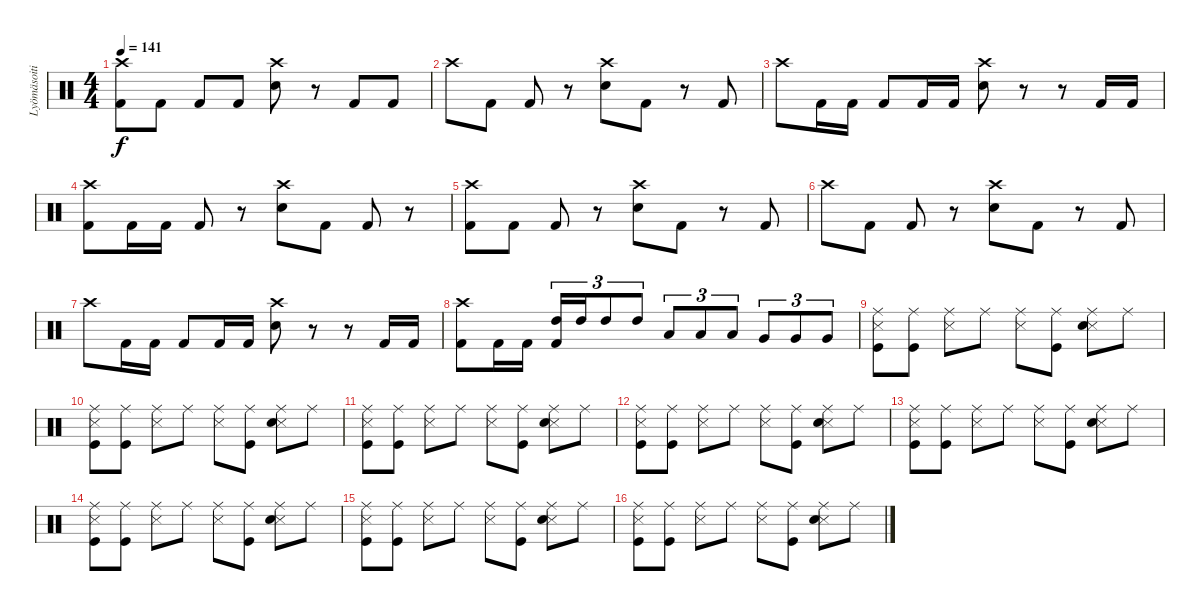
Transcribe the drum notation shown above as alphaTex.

\track ("Lyömäsoitin" "Lyömäsoiti") {instrument percussion}
\staff {score}
\articulation defaults
\ts (4 4)
\tempo 141
\clef neutral
\ks c
("Crash high (hit)" "Kick (hit) 2").8{dy f} "Kick (hit) 2".8 "Kick (hit) 2".8 "Kick (hit) 2".8 ("Crash high (hit)" "Electric Snare (hit)").8 r.8 "Kick (hit) 2".8 "Kick (hit) 2".8 |
"Crash high (hit)".8 "Kick (hit) 2".8 "Kick (hit) 2".8 r.8 ("Crash high (hit)" "Electric Snare (hit)").8 "Kick (hit) 2".8 r.8 "Kick (hit) 2".8 |
"Crash high (hit)".8 "Kick (hit) 2".16 "Kick (hit) 2".16 "Kick (hit) 2".8 "Kick (hit) 2".16 "Kick (hit) 2".16 ("Crash high (hit)" "Electric Snare (hit)").8 r.8 r.8 "Kick (hit) 2".16 "Kick (hit) 2".16 |
("Crash high (hit)" "Kick (hit) 2").8 "Kick (hit) 2".16 "Kick (hit) 2".16 "Kick (hit) 2".8 r.8 ("Crash high (hit)" "Electric Snare (hit)").8 "Kick (hit) 2".8 "Kick (hit) 2".8 r.8 |
("Crash high (hit)" "Kick (hit) 2").8 "Kick (hit) 2".8 "Kick (hit) 2".8 r.8 ("Crash high (hit)" "Electric Snare (hit)").8 "Kick (hit) 2".8 r.8 "Kick (hit) 2".8 |
"Crash high (hit)".8 "Kick (hit) 2".8 "Kick (hit) 2".8 r.8 ("Crash high (hit)" "Electric Snare (hit)").8 "Kick (hit) 2".8 r.8 "Kick (hit) 2".8 |
"Crash high (hit)".8 "Kick (hit) 2".16 "Kick (hit) 2".16 "Kick (hit) 2".8 "Kick (hit) 2".16 "Kick (hit) 2".16 ("Crash high (hit)" "Electric Snare (hit)").8 r.8 r.8 "Kick (hit) 2".16 "Kick (hit) 2".16 |
("Crash high (hit)" "Kick (hit) 2").8 "Kick (hit) 2".16 "Kick (hit) 2".16 ("High Tom (hit)" "Kick (hit) 2").16{tu (3 2)} "High Tom (hit)".16{tu (3 2)} "High Tom (hit)".8{tu (3 2)} "High Tom (hit)".8{tu (3 2)} "Low Tom (hit)".8{tu (3 2)} "Low Tom (hit)".8{tu (3 2)} "Low Tom (hit)".8{tu (3 2)} "Very Low Tom (hit)".8{tu (3 2)} "Very Low Tom (hit)".8{tu (3 2)} "Very Low Tom (hit)".8{tu (3 2)} |
("Snare (side stick) 3" "Ride (middle)" "Kick (hit)").8 ("Ride (middle)" "Kick (hit)").8 ("Snare (side stick) 3" "Ride (middle)").8 "Ride (middle)".8 ("Snare (side stick) 3" "Ride (middle)").8 ("Ride (middle)" "Kick (hit)").8 ("Snare (side stick) 3" "Ride (middle)" "Snare (hit) 2").8 "Ride (middle)".8 |
("Snare (side stick) 3" "Ride (middle)" "Kick (hit)").8 ("Ride (middle)" "Kick (hit)").8 ("Snare (side stick) 3" "Ride (middle)").8 "Ride (middle)".8 ("Snare (side stick) 3" "Ride (middle)").8 ("Ride (middle)" "Kick (hit)").8 ("Snare (side stick) 3" "Ride (middle)" "Snare (hit) 2").8 "Ride (middle)".8 |
("Snare (side stick) 3" "Ride (middle)" "Kick (hit)").8 ("Ride (middle)" "Kick (hit)").8 ("Snare (side stick) 3" "Ride (middle)").8 "Ride (middle)".8 ("Snare (side stick) 3" "Ride (middle)").8 ("Ride (middle)" "Kick (hit)").8 ("Snare (side stick) 3" "Ride (middle)" "Snare (hit) 2").8 "Ride (middle)".8 |
("Snare (side stick) 3" "Ride (middle)" "Kick (hit)").8 ("Ride (middle)" "Kick (hit)").8 ("Snare (side stick) 3" "Ride (middle)").8 "Ride (middle)".8 ("Snare (side stick) 3" "Ride (middle)").8 ("Ride (middle)" "Kick (hit)").8 ("Snare (side stick) 3" "Ride (middle)" "Snare (hit) 2").8 "Ride (middle)".8 |
("Snare (side stick) 3" "Ride (middle)" "Kick (hit)").8 ("Ride (middle)" "Kick (hit)").8 ("Snare (side stick) 3" "Ride (middle)").8 "Ride (middle)".8 ("Snare (side stick) 3" "Ride (middle)").8 ("Ride (middle)" "Kick (hit)").8 ("Snare (side stick) 3" "Ride (middle)" "Snare (hit) 2").8 "Ride (middle)".8 |
("Snare (side stick) 3" "Ride (middle)" "Kick (hit)").8 ("Ride (middle)" "Kick (hit)").8 ("Snare (side stick) 3" "Ride (middle)").8 "Ride (middle)".8 ("Snare (side stick) 3" "Ride (middle)").8 ("Ride (middle)" "Kick (hit)").8 ("Snare (side stick) 3" "Ride (middle)" "Snare (hit) 2").8 "Ride (middle)".8 |
("Snare (side stick) 3" "Ride (middle)" "Kick (hit)").8 ("Ride (middle)" "Kick (hit)").8 ("Snare (side stick) 3" "Ride (middle)").8 "Ride (middle)".8 ("Snare (side stick) 3" "Ride (middle)").8 ("Ride (middle)" "Kick (hit)").8 ("Snare (side stick) 3" "Ride (middle)" "Snare (hit) 2").8 "Ride (middle)".8 |
("Snare (side stick) 3" "Ride (middle)" "Kick (hit)").8 ("Ride (middle)" "Kick (hit)").8 ("Snare (side stick) 3" "Ride (middle)").8 "Ride (middle)".8 ("Snare (side stick) 3" "Ride (middle)").8 ("Ride (middle)" "Kick (hit)").8 ("Snare (side stick) 3" "Ride (middle)" "Snare (hit) 2").8 "Ride (middle)".8
